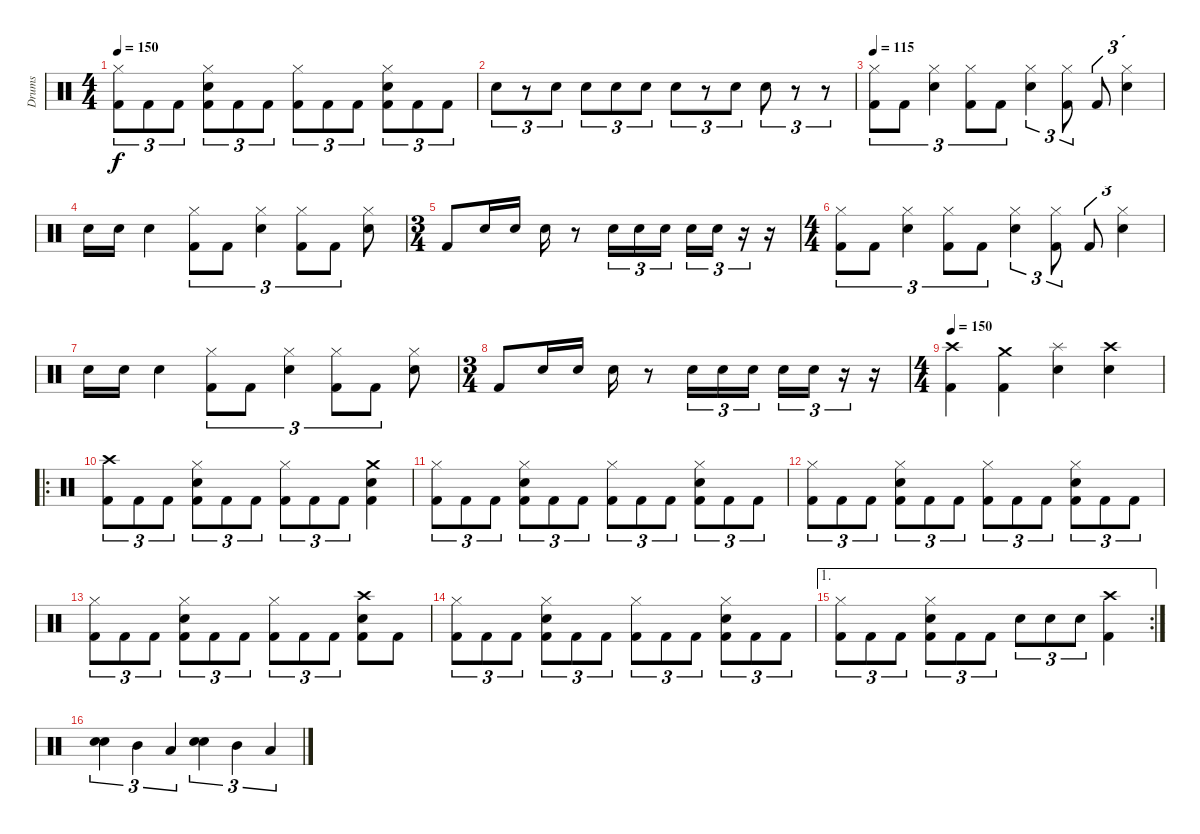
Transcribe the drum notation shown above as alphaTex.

\track ("Drums" "Drums") {instrument percussion}
\staff {score}
\articulation defaults
\ts (4 4)
\tempo 150
\clef neutral
\ks c
("Hi-Hat (closed)" "Kick (hit) 2").8{tu (3 2) dy f} "Kick (hit) 2".8{tu (3 2)} "Kick (hit) 2".8{tu (3 2)} ("Hi-Hat (closed)" "Snare (hit) 2" "Kick (hit) 2").8{tu (3 2)} "Kick (hit) 2".8{tu (3 2)} "Kick (hit) 2".8{tu (3 2)} ("Hi-Hat (closed)" "Kick (hit) 2").8{tu (3 2)} "Kick (hit) 2".8{tu (3 2)} "Kick (hit) 2".8{tu (3 2)} ("Hi-Hat (closed)" "Snare (hit) 2" "Kick (hit) 2").8{tu (3 2)} "Kick (hit) 2".8{tu (3 2)} "Kick (hit) 2".8{tu (3 2)} |
"Snare (hit) 2".8{tu (3 2)} r.8{tu (3 2)} "Snare (hit) 2".8{tu (3 2)} "Snare (hit) 2".8{tu (3 2)} "Snare (hit) 2".8{tu (3 2)} "Snare (hit) 2".8{tu (3 2)} "Snare (hit) 2".8{tu (3 2)} r.8{tu (3 2)} "Snare (hit) 2".8{tu (3 2)} "Snare (hit) 2".8{tu (3 2)} r.8{tu (3 2)} r.8{tu (3 2)} |
\tempo 115
("Hi-Hat (closed)" "Kick (hit) 2").8{tu (3 2)} "Kick (hit) 2".8{tu (3 2)} ("Hi-Hat (closed)" "Snare (hit) 2").4{tu (3 2)} ("Hi-Hat (closed)" "Kick (hit) 2").8{tu (3 2)} "Kick (hit) 2".8{tu (3 2)} ("Hi-Hat (closed)" "Snare (hit) 2").4{tu (3 2)} ("Hi-Hat (closed)" "Kick (hit) 2").8{tu (3 2)} "Kick (hit) 2".8{tu (3 2)} ("Hi-Hat (closed)" "Snare (hit) 2").4{tu (3 2)} |
"Snare (hit) 2".16 "Snare (hit) 2".16 "Snare (hit) 2".4 ("Hi-Hat (closed)" "Kick (hit) 2").8{tu (3 2)} "Kick (hit) 2".8{tu (3 2)} ("Hi-Hat (closed)" "Snare (hit) 2").4{tu (3 2)} ("Hi-Hat (closed)" "Kick (hit) 2").8{tu (3 2)} "Kick (hit) 2".8{tu (3 2)} ("Hi-Hat (closed)" "Snare (hit) 2").8 |
\ts (3 4)
"Kick (hit) 2".8 "Snare (hit) 2".16 "Snare (hit) 2".16 "Snare (hit) 2".16 r.8 "Snare (hit) 2".16{tu (3 2)} "Snare (hit) 2".16{tu (3 2)} "Snare (hit) 2".16{tu (3 2) beam splitsecondary} "Snare (hit) 2".16{tu (3 2)} "Snare (hit) 2".16{tu (3 2)} r.16{tu (3 2)} r.16 |
\ts (4 4)
("Hi-Hat (closed)" "Kick (hit) 2").8{tu (3 2)} "Kick (hit) 2".8{tu (3 2)} ("Hi-Hat (closed)" "Snare (hit) 2").4{tu (3 2)} ("Hi-Hat (closed)" "Kick (hit) 2").8{tu (3 2)} "Kick (hit) 2".8{tu (3 2)} ("Hi-Hat (closed)" "Snare (hit) 2").4{tu (3 2)} ("Hi-Hat (closed)" "Kick (hit) 2").8{tu (3 2)} "Kick (hit) 2".8{tu (3 2)} ("Hi-Hat (closed)" "Snare (hit) 2").4{tu (3 2)} |
"Snare (hit) 2".16 "Snare (hit) 2".16 "Snare (hit) 2".4 ("Hi-Hat (closed)" "Kick (hit) 2").8{tu (3 2)} "Kick (hit) 2".8{tu (3 2)} ("Hi-Hat (closed)" "Snare (hit) 2").4{tu (3 2)} ("Hi-Hat (closed)" "Kick (hit) 2").8{tu (3 2)} "Kick (hit) 2".8{tu (3 2)} ("Hi-Hat (closed)" "Snare (hit) 2").8 |
\ts (3 4)
"Kick (hit) 2".8 "Snare (hit) 2".16 "Snare (hit) 2".16 "Snare (hit) 2".16 r.8 "Snare (hit) 2".16{tu (3 2)} "Snare (hit) 2".16{tu (3 2)} "Snare (hit) 2".16{tu (3 2) beam splitsecondary} "Snare (hit) 2".16{tu (3 2)} "Snare (hit) 2".16{tu (3 2)} r.16{tu (3 2)} r.16 |
\ts (4 4)
\tempo 150
("Crash high (hit)" "Kick (hit) 2").4 ("Crash medium (hit)" "Kick (hit) 2").4 ("Splash (hit)" "Snare (hit) 2").4 ("Crash high (hit)" "Snare (hit) 2").4 |
\ro
("Crash high (hit)" "Kick (hit) 2").8{tu (3 2)} "Kick (hit) 2".8{tu (3 2)} "Kick (hit) 2".8{tu (3 2)} ("Hi-Hat (closed)" "Snare (hit) 2" "Kick (hit) 2").8{tu (3 2)} "Kick (hit) 2".8{tu (3 2)} "Kick (hit) 2".8{tu (3 2)} ("Hi-Hat (closed)" "Kick (hit) 2").8{tu (3 2)} "Kick (hit) 2".8{tu (3 2)} "Kick (hit) 2".8{tu (3 2)} ("Crash medium (hit)" "Snare (hit) 2" "Kick (hit) 2").4 |
("Hi-Hat (closed)" "Kick (hit) 2").8{tu (3 2)} "Kick (hit) 2".8{tu (3 2)} "Kick (hit) 2".8{tu (3 2)} ("Hi-Hat (closed)" "Snare (hit) 2" "Kick (hit) 2").8{tu (3 2)} "Kick (hit) 2".8{tu (3 2)} "Kick (hit) 2".8{tu (3 2)} ("Hi-Hat (closed)" "Kick (hit) 2").8{tu (3 2)} "Kick (hit) 2".8{tu (3 2)} "Kick (hit) 2".8{tu (3 2)} ("Hi-Hat (closed)" "Snare (hit) 2" "Kick (hit) 2").8{tu (3 2)} "Kick (hit) 2".8{tu (3 2)} "Kick (hit) 2".8{tu (3 2)} |
("Hi-Hat (closed)" "Kick (hit) 2").8{tu (3 2)} "Kick (hit) 2".8{tu (3 2)} "Kick (hit) 2".8{tu (3 2)} ("Hi-Hat (closed)" "Snare (hit) 2" "Kick (hit) 2").8{tu (3 2)} "Kick (hit) 2".8{tu (3 2)} "Kick (hit) 2".8{tu (3 2)} ("Hi-Hat (closed)" "Kick (hit) 2").8{tu (3 2)} "Kick (hit) 2".8{tu (3 2)} "Kick (hit) 2".8{tu (3 2)} ("Hi-Hat (closed)" "Snare (hit) 2" "Kick (hit) 2").8{tu (3 2)} "Kick (hit) 2".8{tu (3 2)} "Kick (hit) 2".8{tu (3 2)} |
("Hi-Hat (closed)" "Kick (hit) 2").8{tu (3 2)} "Kick (hit) 2".8{tu (3 2)} "Kick (hit) 2".8{tu (3 2)} ("Hi-Hat (closed)" "Snare (hit) 2" "Kick (hit) 2").8{tu (3 2)} "Kick (hit) 2".8{tu (3 2)} "Kick (hit) 2".8{tu (3 2)} ("Hi-Hat (closed)" "Kick (hit) 2").8{tu (3 2)} "Kick (hit) 2".8{tu (3 2)} "Kick (hit) 2".8{tu (3 2)} ("Crash high (hit)" "Snare (hit) 2" "Kick (hit) 2").8 "Kick (hit) 2".8 |
("Hi-Hat (closed)" "Kick (hit) 2").8{tu (3 2)} "Kick (hit) 2".8{tu (3 2)} "Kick (hit) 2".8{tu (3 2)} ("Hi-Hat (closed)" "Snare (hit) 2" "Kick (hit) 2").8{tu (3 2)} "Kick (hit) 2".8{tu (3 2)} "Kick (hit) 2".8{tu (3 2)} ("Hi-Hat (closed)" "Kick (hit) 2").8{tu (3 2)} "Kick (hit) 2".8{tu (3 2)} "Kick (hit) 2".8{tu (3 2)} ("Hi-Hat (closed)" "Snare (hit) 2" "Kick (hit) 2").8{tu (3 2)} "Kick (hit) 2".8{tu (3 2)} "Kick (hit) 2".8{tu (3 2)} |
\ae 1
\rc 2
("Hi-Hat (closed)" "Kick (hit) 2").8{tu (3 2)} "Kick (hit) 2".8{tu (3 2)} "Kick (hit) 2".8{tu (3 2)} ("Hi-Hat (closed)" "Snare (hit) 2" "Kick (hit) 2").8{tu (3 2)} "Kick (hit) 2".8{tu (3 2)} "Kick (hit) 2".8{tu (3 2)} "Snare (hit) 2".8{tu (3 2)} "Snare (hit) 2".8{tu (3 2)} "Snare (hit) 2".8{tu (3 2)} ("Crash high (hit)" "Kick (hit) 2").4 |
("Snare (hit) 2" "Snare (hit) 2").4{tu (3 2)} "Mid Tom (hit)".4{tu (3 2)} "Low Tom (hit)".4{tu (3 2)} ("Snare (hit) 2" "Snare (hit) 2").4{tu (3 2)} "Mid Tom (hit)".4{tu (3 2)} "Low Tom (hit)".4{tu (3 2)}
